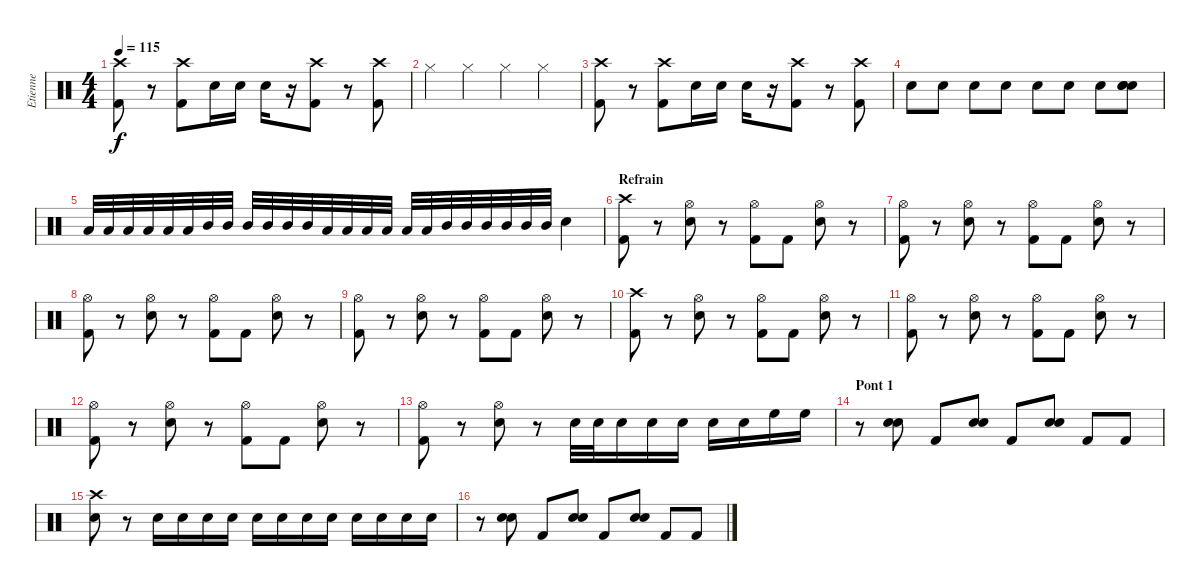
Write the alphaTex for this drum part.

\track ("Etienne" "Etienne") {instrument percussion}
\staff {score}
\articulation defaults
\ts (4 4)
\tempo 115
\clef neutral
\ks c
("Crash high (hit)" "Kick (hit) 2").8{dy f} r.8 ("Crash high (hit)" "Kick (hit) 2").8 "Electric Snare (hit)".16 "Electric Snare (hit)".16 "Electric Snare (hit)".16 r.16 ("Crash high (hit)" "Kick (hit) 2").8 r.8 ("Crash high (hit)" "Kick (hit) 2").8 |
"Hi-Hat (closed)".4 "Hi-Hat (closed)".4 "Hi-Hat (closed)".4 "Hi-Hat (closed)".4 |
("Crash high (hit)" "Kick (hit) 2").8 r.8 ("Crash high (hit)" "Kick (hit) 2").8 "Electric Snare (hit)".16 "Electric Snare (hit)".16 "Electric Snare (hit)".16 r.16 ("Crash high (hit)" "Kick (hit) 2").8 r.8 ("Crash high (hit)" "Kick (hit) 2").8 |
"Electric Snare (hit)".8 "Electric Snare (hit)".8 "Electric Snare (hit)".8 "Electric Snare (hit)".8 "Electric Snare (hit)".8 "Electric Snare (hit)".8 "Electric Snare (hit)".8 ("Electric Snare (hit)" "Electric Snare (hit)" "Electric Snare (hit)").8 |
"Low Tom (hit)".32 "Low Tom (hit)".32 "Low Tom (hit)".32 "Low Tom (hit)".32 "Low Tom (hit)".32 "Low Tom (hit)".32 "Mid Tom (hit)".32 "Mid Tom (hit)".32 "Mid Tom (hit)".32 "Mid Tom (hit)".32 "Mid Tom (hit)".32 "Mid Tom (hit)".32 "Low Tom (hit)".32 "Low Tom (hit)".32 "Low Tom (hit)".32 "Low Tom (hit)".32 "Low Tom (hit)".32 "Low Tom (hit)".32 "Mid Tom (hit)".32 "Mid Tom (hit)".32 "Mid Tom (hit)".32 "Mid Tom (hit)".32 "Mid Tom (hit)".32 "Mid Tom (hit)".32 "Electric Snare (hit)".4 |
\section ("" "Refrain")
("Crash high (hit)" "Kick (hit) 2").8 r.8 ("Hi-Hat (open)" "Electric Snare (hit)").8 r.8 ("Hi-Hat (open)" "Kick (hit) 2").8 "Kick (hit) 2".8 ("Hi-Hat (open)" "Electric Snare (hit)").8 r.8 |
("Hi-Hat (open)" "Kick (hit) 2").8 r.8 ("Hi-Hat (open)" "Electric Snare (hit)").8 r.8 ("Hi-Hat (open)" "Kick (hit) 2").8 "Kick (hit) 2".8 ("Hi-Hat (open)" "Electric Snare (hit)").8 r.8 |
("Hi-Hat (open)" "Kick (hit) 2").8 r.8 ("Hi-Hat (open)" "Electric Snare (hit)").8 r.8 ("Hi-Hat (open)" "Kick (hit) 2").8 "Kick (hit) 2".8 ("Hi-Hat (open)" "Electric Snare (hit)").8 r.8 |
("Hi-Hat (open)" "Kick (hit) 2").8 r.8 ("Hi-Hat (open)" "Electric Snare (hit)").8 r.8 ("Hi-Hat (open)" "Kick (hit) 2").8 "Kick (hit) 2".8 ("Hi-Hat (open)" "Electric Snare (hit)").8 r.8 |
("Crash high (hit)" "Kick (hit) 2").8 r.8 ("Hi-Hat (open)" "Electric Snare (hit)").8 r.8 ("Hi-Hat (open)" "Kick (hit) 2").8 "Kick (hit) 2".8 ("Hi-Hat (open)" "Electric Snare (hit)").8 r.8 |
("Hi-Hat (open)" "Kick (hit) 2").8 r.8 ("Hi-Hat (open)" "Electric Snare (hit)").8 r.8 ("Hi-Hat (open)" "Kick (hit) 2").8 "Kick (hit) 2".8 ("Hi-Hat (open)" "Electric Snare (hit)").8 r.8 |
("Hi-Hat (open)" "Kick (hit) 2").8 r.8 ("Hi-Hat (open)" "Electric Snare (hit)").8 r.8 ("Hi-Hat (open)" "Kick (hit) 2").8 "Kick (hit) 2".8 ("Hi-Hat (open)" "Electric Snare (hit)").8 r.8 |
("Hi-Hat (open)" "Kick (hit) 2").8 r.8 ("Hi-Hat (open)" "Electric Snare (hit)").8 r.8 "Electric Snare (hit)".32 "Electric Snare (hit)".32 "Electric Snare (hit)".16 "Electric Snare (hit)".16 "Electric Snare (hit)".16 "Electric Snare (hit)".16 "Electric Snare (hit)".16 "High Floor Tom (hit)".16 "High Floor Tom (hit)".16 |
\section ("" "Pont 1")
r.8 ("Electric Snare (hit)" "Electric Snare (hit)").8 "Kick (hit) 2".8 ("Electric Snare (hit)" "Electric Snare (hit)").8 "Kick (hit) 2".8 ("Electric Snare (hit)" "Electric Snare (hit)").8 "Kick (hit) 2".8 "Kick (hit) 2".8 |
("Crash high (hit)" "Electric Snare (hit)").8 r.8 "Electric Snare (hit)".16 "Electric Snare (hit)".16 "Electric Snare (hit)".16 "Electric Snare (hit)".16 "Electric Snare (hit)".16 "Electric Snare (hit)".16 "Electric Snare (hit)".16 "Electric Snare (hit)".16 "Electric Snare (hit)".16 "Electric Snare (hit)".16 "Electric Snare (hit)".16 "Electric Snare (hit)".16 |
r.8 ("Electric Snare (hit)" "Electric Snare (hit)").8 "Kick (hit) 2".8 ("Electric Snare (hit)" "Electric Snare (hit)").8 "Kick (hit) 2".8 ("Electric Snare (hit)" "Electric Snare (hit)").8 "Kick (hit) 2".8 "Kick (hit) 2".8
